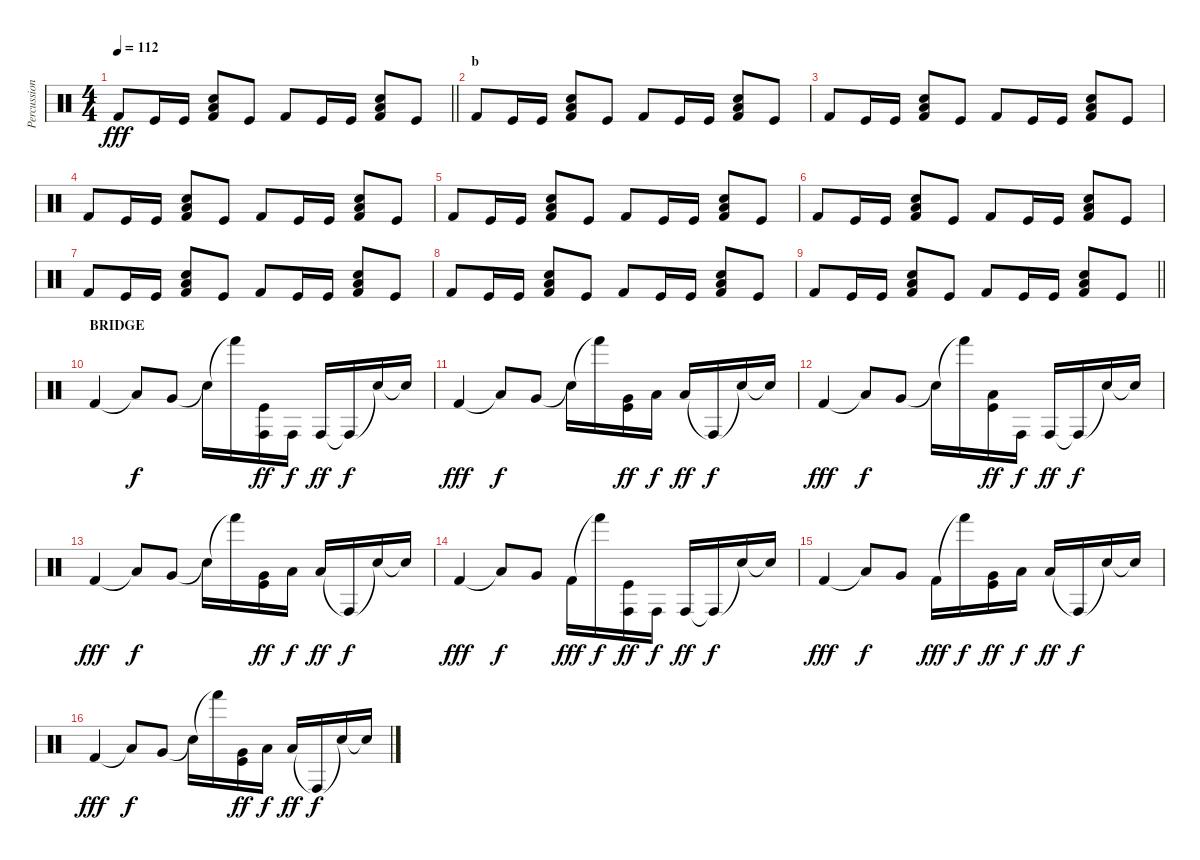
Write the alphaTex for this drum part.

\track ("Percussion" "Percussion") {instrument percussion}
\staff {score}
\articulation defaults
\ts (4 4)
\tempo 112
\clef neutral
\barLineRight lightlight
\ks c "Kick (hit) 2".8{dy fff} "Kick (hit)".16 "Kick (hit)".16
("Kick (hit) 2" "Low Floor Tom (hit)" "Hand Clap (hit)").8 "Kick (hit)".8 "Kick (hit) 2".8 "Kick (hit)".16 "Kick (hit)".16 ("Kick (hit) 2" "Low Floor Tom (hit)" "Hand Clap (hit)").8 "Kick (hit)".8 |
\section ("" "b")
"Kick (hit) 2".8 "Kick (hit)".16 "Kick (hit)".16 ("Kick (hit) 2" "Low Floor Tom (hit)" "Hand Clap (hit)").8 "Kick (hit)".8 "Kick (hit) 2".8 "Kick (hit)".16 "Kick (hit)".16 ("Kick (hit) 2" "Low Floor Tom (hit)" "Hand Clap (hit)").8 "Kick (hit)".8 |
"Kick (hit) 2".8 "Kick (hit)".16 "Kick (hit)".16 ("Kick (hit) 2" "Low Floor Tom (hit)" "Hand Clap (hit)").8 "Kick (hit)".8 "Kick (hit) 2".8 "Kick (hit)".16 "Kick (hit)".16 ("Kick (hit) 2" "Low Floor Tom (hit)" "Hand Clap (hit)").8 "Kick (hit)".8 |
"Kick (hit) 2".8 "Kick (hit)".16 "Kick (hit)".16 ("Kick (hit) 2" "Low Floor Tom (hit)" "Hand Clap (hit)").8 "Kick (hit)".8 "Kick (hit) 2".8 "Kick (hit)".16 "Kick (hit)".16 ("Kick (hit) 2" "Low Floor Tom (hit)" "Hand Clap (hit)").8 "Kick (hit)".8 |
"Kick (hit) 2".8 "Kick (hit)".16 "Kick (hit)".16 ("Kick (hit) 2" "Low Floor Tom (hit)" "Hand Clap (hit)").8 "Kick (hit)".8 "Kick (hit) 2".8 "Kick (hit)".16 "Kick (hit)".16 ("Kick (hit) 2" "Low Floor Tom (hit)" "Hand Clap (hit)").8 "Kick (hit)".8 |
"Kick (hit) 2".8 "Kick (hit)".16 "Kick (hit)".16 ("Kick (hit) 2" "Low Floor Tom (hit)" "Hand Clap (hit)").8 "Kick (hit)".8 "Kick (hit) 2".8 "Kick (hit)".16 "Kick (hit)".16 ("Kick (hit) 2" "Low Floor Tom (hit)" "Hand Clap (hit)").8 "Kick (hit)".8 |
"Kick (hit) 2".8 "Kick (hit)".16 "Kick (hit)".16 ("Kick (hit) 2" "Low Floor Tom (hit)" "Hand Clap (hit)").8 "Kick (hit)".8 "Kick (hit) 2".8 "Kick (hit)".16 "Kick (hit)".16 ("Kick (hit) 2" "Low Floor Tom (hit)" "Hand Clap (hit)").8 "Kick (hit)".8 |
"Kick (hit) 2".8 "Kick (hit)".16 "Kick (hit)".16 ("Kick (hit) 2" "Low Floor Tom (hit)" "Hand Clap (hit)").8 "Kick (hit)".8 "Kick (hit) 2".8 "Kick (hit)".16 "Kick (hit)".16 ("Kick (hit) 2" "Low Floor Tom (hit)" "Hand Clap (hit)").8 "Kick (hit)".8 |
\barLineRight lightlight "Kick (hit) 2".8 "Kick (hit)".16 "Kick (hit)".16
("Kick (hit) 2" "Low Floor Tom (hit)" "Hand Clap (hit)").8 "Kick (hit)".8 "Kick (hit) 2".8 "Kick (hit)".16 "Kick (hit)".16 ("Kick (hit) 2" "Low Floor Tom (hit)" "Hand Clap (hit)").8 "Kick (hit)".8 |
\section ("" "BRIDGE")
"Kick (hit) 2".4 "Low Floor Tom (hit)"{t}.8{dy f} "Very Low Tom (hit)".8 "Snare (hit)"{t}.16 "Hand (hit)"{t}.16 ("Conga high (hit)" "Kick (hit)").16{dy ff} "Conga high (hit)".16{dy f} "Conga high (hit)".16{dy ff} "Conga high (hit)"{t}.16{dy f} "Snare (hit)"{t}.16 "Snare (hit)"{t}.16 |
"Kick (hit) 2".4{dy fff} "Low Floor Tom (hit)"{t}.8{dy f} "Very Low Tom (hit)".8 "Snare (hit)"{t}.16 "Hand (hit)"{t}.16 ("Very Low Tom (hit)" "Kick (hit)").16{dy ff} "Low Tom (hit)".16{dy f} "Low Tom (hit)".16{dy ff} "Conga high (hit)"{t}.16{dy f} "Snare (hit)"{t}.16 "Snare (hit)"{t}.16 |
"Kick (hit) 2".4{dy fff} "Low Floor Tom (hit)"{t}.8{dy f} "Very Low Tom (hit)".8 "Snare (hit)"{t}.16 "Hand (hit)"{t}.16 ("Low Floor Tom (hit)" "Kick (hit)").16{dy ff} "Conga high (hit)".16{dy f} "Conga high (hit)".16{dy ff} "Conga high (hit)"{t}.16{dy f} "Snare (hit)"{t}.16 "Snare (hit)"{t}.16 |
"Kick (hit) 2".4{dy fff} "Low Floor Tom (hit)"{t}.8{dy f} "Very Low Tom (hit)".8 "Snare (hit)"{t}.16 "Hand (hit)"{t}.16 ("Very Low Tom (hit)" "Kick (hit)").16{dy ff} "Low Tom (hit)".16{dy f} "Low Tom (hit)".16{dy ff} "Conga high (hit)"{t}.16{dy f} "Snare (hit)"{t}.16 "Snare (hit)"{t}.16 |
"Kick (hit) 2".4{dy fff} "Low Floor Tom (hit)"{t}.8{dy f} "Very Low Tom (hit)".8 "Kick (hit) 2".16{dy fff} "Hand (hit)"{t}.16{dy f} ("Conga high (hit)" "Kick (hit)").16{dy ff} "Conga high (hit)".16{dy f} "Conga high (hit)".16{dy ff} "Conga high (hit)"{t}.16{dy f} "Snare (hit)"{t}.16 "Snare (hit)"{t}.16 |
"Kick (hit) 2".4{dy fff} "Low Floor Tom (hit)"{t}.8{dy f} "Very Low Tom (hit)".8 "Kick (hit) 2".16{dy fff} "Hand (hit)"{t}.16{dy f} ("Very Low Tom (hit)" "Kick (hit)").16{dy ff} "Low Tom (hit)".16{dy f} "Low Tom (hit)".16{dy ff} "Conga high (hit)"{t}.16{dy f} "Snare (hit)"{t}.16 "Snare (hit)"{t}.16 |
"Kick (hit) 2".4{dy fff} "Low Floor Tom (hit)"{t}.8{dy f} "Very Low Tom (hit)".8 "Snare (hit)"{t}.16 "Hand (hit)"{t}.16 ("Very Low Tom (hit)" "Kick (hit)").16{dy ff} "Low Tom (hit)".16{dy f} "Low Tom (hit)".16{dy ff} "Conga high (hit)"{t}.16{dy f} "Snare (hit)"{t}.16 "Snare (hit)"{t}.16
